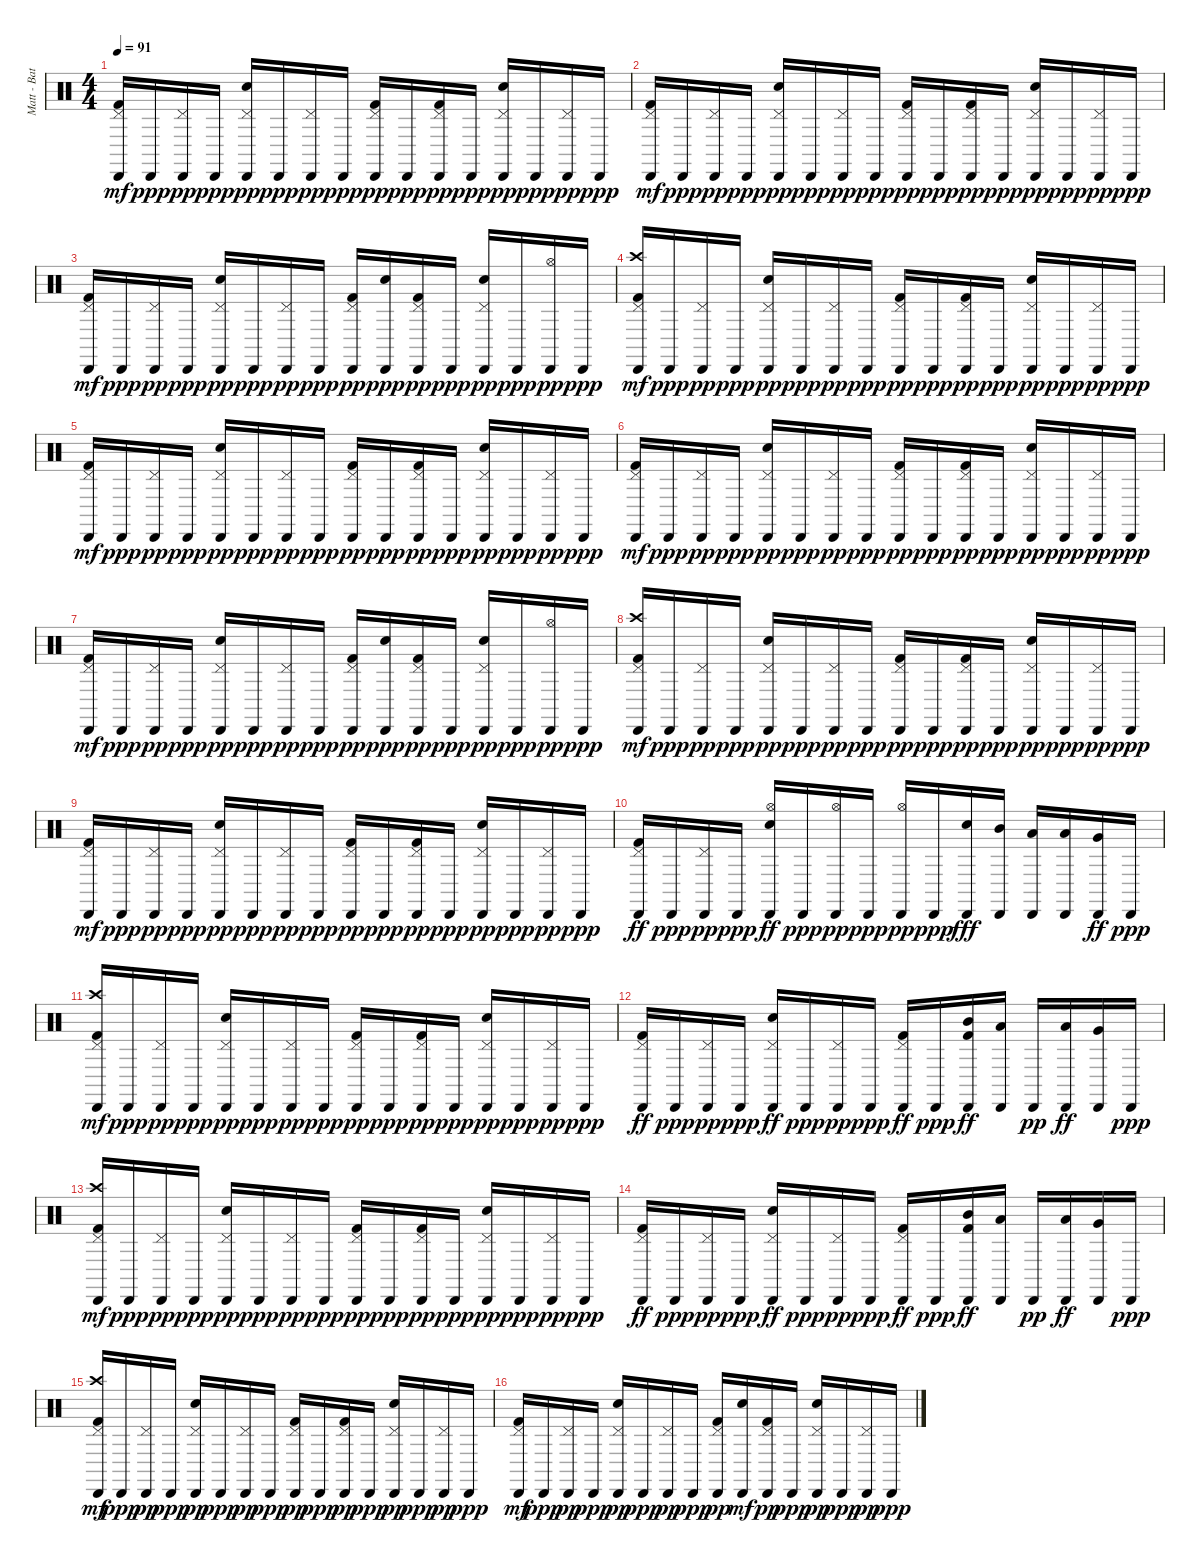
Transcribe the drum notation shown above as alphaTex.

\track ("Matt - Batería" "Matt - Bat") {instrument percussion}
\staff {score}
\articulation defaults
\ts (4 4)
\tempo 91
\clef neutral
\ks c
("Cabasa (hit)" "Pedal Hi-Hat (hit)" "Kick (hit) 2").16{dy mf} "Cabasa (hit)".16{dy ppp} ("Cabasa (hit)" "Pedal Hi-Hat (hit)").16{dy pp} "Cabasa (hit)".16{dy ppp} ("Cabasa (hit)" "Pedal Hi-Hat (hit)" "Snare (hit) 2").16{dy pp} "Cabasa (hit)".16{dy ppp} ("Cabasa (hit)" "Pedal Hi-Hat (hit)").16{dy pp} "Cabasa (hit)".16{dy ppp} ("Cabasa (hit)" "Pedal Hi-Hat (hit)" "Kick (hit) 2").16{dy pp} "Cabasa (hit)".16{dy ppp} ("Cabasa (hit)" "Pedal Hi-Hat (hit)" "Kick (hit) 2").16{dy pp} "Cabasa (hit)".16{dy ppp} ("Cabasa (hit)" "Pedal Hi-Hat (hit)" "Snare (hit) 2").16{dy pp} "Cabasa (hit)".16{dy ppp} ("Cabasa (hit)" "Pedal Hi-Hat (hit)").16{dy pp} "Cabasa (hit)".16{dy ppp} |
("Cabasa (hit)" "Pedal Hi-Hat (hit)" "Kick (hit) 2").16{dy mf} "Cabasa (hit)".16{dy ppp} ("Cabasa (hit)" "Pedal Hi-Hat (hit)").16{dy pp} "Cabasa (hit)".16{dy ppp} ("Cabasa (hit)" "Pedal Hi-Hat (hit)" "Snare (hit) 2").16{dy pp} "Cabasa (hit)".16{dy ppp} ("Cabasa (hit)" "Pedal Hi-Hat (hit)").16{dy pp} "Cabasa (hit)".16{dy ppp} ("Cabasa (hit)" "Pedal Hi-Hat (hit)" "Kick (hit) 2").16{dy pp} "Cabasa (hit)".16{dy ppp} ("Cabasa (hit)" "Pedal Hi-Hat (hit)" "Kick (hit) 2").16{dy pp} "Cabasa (hit)".16{dy ppp} ("Cabasa (hit)" "Pedal Hi-Hat (hit)" "Snare (hit) 2").16{dy pp} "Cabasa (hit)".16{dy ppp} ("Cabasa (hit)" "Pedal Hi-Hat (hit)").16{dy pp} "Cabasa (hit)".16{dy ppp} |
("Cabasa (hit)" "Pedal Hi-Hat (hit)" "Kick (hit) 2").16{dy mf} "Cabasa (hit)".16{dy ppp} ("Cabasa (hit)" "Pedal Hi-Hat (hit)").16{dy pp} "Cabasa (hit)".16{dy ppp} ("Cabasa (hit)" "Pedal Hi-Hat (hit)" "Snare (hit) 2").16{dy pp} "Cabasa (hit)".16{dy ppp} ("Cabasa (hit)" "Pedal Hi-Hat (hit)").16{dy pp} "Cabasa (hit)".16{dy ppp} ("Cabasa (hit)" "Pedal Hi-Hat (hit)" "Kick (hit) 2").16{dy pp} ("Cabasa (hit)" "Snare (hit) 2").16{dy ppp} ("Cabasa (hit)" "Pedal Hi-Hat (hit)" "Kick (hit) 2").16{dy pp} "Cabasa (hit)".16{dy ppp} ("Cabasa (hit)" "Pedal Hi-Hat (hit)" "Snare (hit) 2").16{dy pp} "Cabasa (hit)".16{dy ppp} ("Cabasa (hit)" "Hi-Hat (open)").16{dy pp} "Cabasa (hit)".16{dy ppp} |
("Cabasa (hit)" "Crash high (hit)" "Pedal Hi-Hat (hit)" "Kick (hit) 2").16{dy mf} "Cabasa (hit)".16{dy ppp} ("Cabasa (hit)" "Pedal Hi-Hat (hit)").16{dy pp} "Cabasa (hit)".16{dy ppp} ("Cabasa (hit)" "Pedal Hi-Hat (hit)" "Snare (hit) 2").16{dy pp} "Cabasa (hit)".16{dy ppp} ("Cabasa (hit)" "Pedal Hi-Hat (hit)").16{dy pp} "Cabasa (hit)".16{dy ppp} ("Cabasa (hit)" "Pedal Hi-Hat (hit)" "Kick (hit) 2").16{dy pp} "Cabasa (hit)".16{dy ppp} ("Cabasa (hit)" "Pedal Hi-Hat (hit)" "Kick (hit) 2").16{dy pp} "Cabasa (hit)".16{dy ppp} ("Cabasa (hit)" "Pedal Hi-Hat (hit)" "Snare (hit) 2").16{dy pp} "Cabasa (hit)".16{dy ppp} ("Cabasa (hit)" "Pedal Hi-Hat (hit)").16{dy pp} "Cabasa (hit)".16{dy ppp} |
("Cabasa (hit)" "Pedal Hi-Hat (hit)" "Kick (hit) 2").16{dy mf} "Cabasa (hit)".16{dy ppp} ("Cabasa (hit)" "Pedal Hi-Hat (hit)").16{dy pp} "Cabasa (hit)".16{dy ppp} ("Cabasa (hit)" "Pedal Hi-Hat (hit)" "Snare (hit) 2").16{dy pp} "Cabasa (hit)".16{dy ppp} ("Cabasa (hit)" "Pedal Hi-Hat (hit)").16{dy pp} "Cabasa (hit)".16{dy ppp} ("Cabasa (hit)" "Pedal Hi-Hat (hit)" "Kick (hit) 2").16{dy pp} "Cabasa (hit)".16{dy ppp} ("Cabasa (hit)" "Pedal Hi-Hat (hit)" "Kick (hit) 2").16{dy pp} "Cabasa (hit)".16{dy ppp} ("Cabasa (hit)" "Pedal Hi-Hat (hit)" "Snare (hit) 2").16{dy pp} "Cabasa (hit)".16{dy ppp} ("Cabasa (hit)" "Pedal Hi-Hat (hit)").16{dy pp} "Cabasa (hit)".16{dy ppp} |
("Cabasa (hit)" "Pedal Hi-Hat (hit)" "Kick (hit) 2").16{dy mf} "Cabasa (hit)".16{dy ppp} ("Cabasa (hit)" "Pedal Hi-Hat (hit)").16{dy pp} "Cabasa (hit)".16{dy ppp} ("Cabasa (hit)" "Pedal Hi-Hat (hit)" "Snare (hit) 2").16{dy pp} "Cabasa (hit)".16{dy ppp} ("Cabasa (hit)" "Pedal Hi-Hat (hit)").16{dy pp} "Cabasa (hit)".16{dy ppp} ("Cabasa (hit)" "Pedal Hi-Hat (hit)" "Kick (hit) 2").16{dy pp} "Cabasa (hit)".16{dy ppp} ("Cabasa (hit)" "Pedal Hi-Hat (hit)" "Kick (hit) 2").16{dy pp} "Cabasa (hit)".16{dy ppp} ("Cabasa (hit)" "Pedal Hi-Hat (hit)" "Snare (hit) 2").16{dy pp} "Cabasa (hit)".16{dy ppp} ("Cabasa (hit)" "Pedal Hi-Hat (hit)").16{dy pp} "Cabasa (hit)".16{dy ppp} |
("Cabasa (hit)" "Pedal Hi-Hat (hit)" "Kick (hit) 2").16{dy mf} "Cabasa (hit)".16{dy ppp} ("Cabasa (hit)" "Pedal Hi-Hat (hit)").16{dy pp} "Cabasa (hit)".16{dy ppp} ("Cabasa (hit)" "Pedal Hi-Hat (hit)" "Snare (hit) 2").16{dy pp} "Cabasa (hit)".16{dy ppp} ("Cabasa (hit)" "Pedal Hi-Hat (hit)").16{dy pp} "Cabasa (hit)".16{dy ppp} ("Cabasa (hit)" "Pedal Hi-Hat (hit)" "Kick (hit) 2").16{dy pp} ("Cabasa (hit)" "Snare (hit) 2").16{dy ppp} ("Cabasa (hit)" "Pedal Hi-Hat (hit)" "Kick (hit) 2").16{dy pp} "Cabasa (hit)".16{dy ppp} ("Cabasa (hit)" "Pedal Hi-Hat (hit)" "Snare (hit) 2").16{dy pp} "Cabasa (hit)".16{dy ppp} ("Cabasa (hit)" "Hi-Hat (open)").16{dy pp} "Cabasa (hit)".16{dy ppp} |
("Cabasa (hit)" "Crash high (hit)" "Pedal Hi-Hat (hit)" "Kick (hit) 2").16{dy mf} "Cabasa (hit)".16{dy ppp} ("Cabasa (hit)" "Pedal Hi-Hat (hit)").16{dy pp} "Cabasa (hit)".16{dy ppp} ("Cabasa (hit)" "Pedal Hi-Hat (hit)" "Snare (hit) 2").16{dy pp} "Cabasa (hit)".16{dy ppp} ("Cabasa (hit)" "Pedal Hi-Hat (hit)").16{dy pp} "Cabasa (hit)".16{dy ppp} ("Cabasa (hit)" "Pedal Hi-Hat (hit)" "Kick (hit) 2").16{dy pp} "Cabasa (hit)".16{dy ppp} ("Cabasa (hit)" "Pedal Hi-Hat (hit)" "Kick (hit) 2").16{dy pp} "Cabasa (hit)".16{dy ppp} ("Cabasa (hit)" "Pedal Hi-Hat (hit)" "Snare (hit) 2").16{dy pp} "Cabasa (hit)".16{dy ppp} ("Cabasa (hit)" "Pedal Hi-Hat (hit)").16{dy pp} "Cabasa (hit)".16{dy ppp} |
("Cabasa (hit)" "Pedal Hi-Hat (hit)" "Kick (hit) 2").16{dy mf} "Cabasa (hit)".16{dy ppp} ("Cabasa (hit)" "Pedal Hi-Hat (hit)").16{dy pp} "Cabasa (hit)".16{dy ppp} ("Cabasa (hit)" "Pedal Hi-Hat (hit)" "Snare (hit) 2").16{dy pp} "Cabasa (hit)".16{dy ppp} ("Cabasa (hit)" "Pedal Hi-Hat (hit)").16{dy pp} "Cabasa (hit)".16{dy ppp} ("Cabasa (hit)" "Pedal Hi-Hat (hit)" "Kick (hit) 2").16{dy pp} "Cabasa (hit)".16{dy ppp} ("Cabasa (hit)" "Pedal Hi-Hat (hit)" "Kick (hit) 2").16{dy pp} "Cabasa (hit)".16{dy ppp} ("Cabasa (hit)" "Pedal Hi-Hat (hit)" "Snare (hit) 2").16{dy pp} "Cabasa (hit)".16{dy ppp} ("Cabasa (hit)" "Pedal Hi-Hat (hit)").16{dy pp} "Cabasa (hit)".16{dy ppp} |
("Cabasa (hit)" "Pedal Hi-Hat (hit)" "Kick (hit) 2").16{dy ff} "Cabasa (hit)".16{dy ppp} ("Cabasa (hit)" "Pedal Hi-Hat (hit)").16{dy pp} "Cabasa (hit)".16{dy ppp} ("Cabasa (hit)" "Hi-Hat (open)" "Snare (hit) 2").16{dy ff} "Cabasa (hit)".16{dy ppp} ("Cabasa (hit)" "Hi-Hat (open)").16{dy pp} "Cabasa (hit)".16{dy ppp} ("Cabasa (hit)" "Hi-Hat (open)").16{dy pp} "Cabasa (hit)".16{dy ppp} ("Cabasa (hit)" "Snare (hit) 2").16{dy fff} ("Cabasa (hit)" "Mid Tom (hit)").16 ("Cabasa (hit)" "Low Tom (hit)").16 ("Cabasa (hit)" "Low Tom (hit)").16 ("Cabasa (hit)" "Very Low Tom (hit)").16{dy ff} "Cabasa (hit)".16{dy ppp} |
("Cabasa (hit)" "Crash high (hit)" "Pedal Hi-Hat (hit)" "Kick (hit) 2").16{dy mf} "Cabasa (hit)".16{dy ppp} ("Cabasa (hit)" "Pedal Hi-Hat (hit)").16{dy pp} "Cabasa (hit)".16{dy ppp} ("Cabasa (hit)" "Pedal Hi-Hat (hit)" "Snare (hit) 2").16{dy pp} "Cabasa (hit)".16{dy ppp} ("Cabasa (hit)" "Pedal Hi-Hat (hit)").16{dy pp} "Cabasa (hit)".16{dy ppp} ("Cabasa (hit)" "Pedal Hi-Hat (hit)" "Kick (hit) 2").16{dy pp} "Cabasa (hit)".16{dy ppp} ("Cabasa (hit)" "Pedal Hi-Hat (hit)" "Kick (hit) 2").16{dy pp} "Cabasa (hit)".16{dy ppp} ("Cabasa (hit)" "Pedal Hi-Hat (hit)" "Snare (hit) 2").16{dy pp} "Cabasa (hit)".16{dy ppp} ("Cabasa (hit)" "Pedal Hi-Hat (hit)").16{dy pp} "Cabasa (hit)".16{dy ppp} |
("Cabasa (hit)" "Pedal Hi-Hat (hit)" "Kick (hit) 2").16{dy ff} "Cabasa (hit)".16{dy ppp} ("Cabasa (hit)" "Pedal Hi-Hat (hit)").16{dy pp} "Cabasa (hit)".16{dy ppp} ("Cabasa (hit)" "Pedal Hi-Hat (hit)" "Snare (hit) 2").16{dy ff} "Cabasa (hit)".16{dy ppp} ("Cabasa (hit)" "Pedal Hi-Hat (hit)").16{dy pp} "Cabasa (hit)".16{dy ppp} ("Cabasa (hit)" "Pedal Hi-Hat (hit)" "Kick (hit) 2").16{dy ff} "Cabasa (hit)".16{dy ppp} ("Cabasa (hit)" "Mid Tom (hit)" "Kick (hit) 2").16{dy ff} ("Cabasa (hit)" "Low Tom (hit)").16 "Cabasa (hit)".16{dy pp} ("Cabasa (hit)" "Low Tom (hit)").16{dy ff} ("Cabasa (hit)" "Very Low Tom (hit)").16 "Cabasa (hit)".16{dy ppp} |
("Cabasa (hit)" "Crash high (hit)" "Pedal Hi-Hat (hit)" "Kick (hit) 2").16{dy mf} "Cabasa (hit)".16{dy ppp} ("Cabasa (hit)" "Pedal Hi-Hat (hit)").16{dy pp} "Cabasa (hit)".16{dy ppp} ("Cabasa (hit)" "Pedal Hi-Hat (hit)" "Snare (hit) 2").16{dy pp} "Cabasa (hit)".16{dy ppp} ("Cabasa (hit)" "Pedal Hi-Hat (hit)").16{dy pp} "Cabasa (hit)".16{dy ppp} ("Cabasa (hit)" "Pedal Hi-Hat (hit)" "Kick (hit) 2").16{dy pp} "Cabasa (hit)".16{dy ppp} ("Cabasa (hit)" "Pedal Hi-Hat (hit)" "Kick (hit) 2").16{dy pp} "Cabasa (hit)".16{dy ppp} ("Cabasa (hit)" "Pedal Hi-Hat (hit)" "Snare (hit) 2").16{dy pp} "Cabasa (hit)".16{dy ppp} ("Cabasa (hit)" "Pedal Hi-Hat (hit)").16{dy pp} "Cabasa (hit)".16{dy ppp} |
("Cabasa (hit)" "Pedal Hi-Hat (hit)" "Kick (hit) 2").16{dy ff} "Cabasa (hit)".16{dy ppp} ("Cabasa (hit)" "Pedal Hi-Hat (hit)").16{dy pp} "Cabasa (hit)".16{dy ppp} ("Cabasa (hit)" "Pedal Hi-Hat (hit)" "Snare (hit) 2").16{dy ff} "Cabasa (hit)".16{dy ppp} ("Cabasa (hit)" "Pedal Hi-Hat (hit)").16{dy pp} "Cabasa (hit)".16{dy ppp} ("Cabasa (hit)" "Pedal Hi-Hat (hit)" "Kick (hit) 2").16{dy ff} "Cabasa (hit)".16{dy ppp} ("Cabasa (hit)" "Mid Tom (hit)" "Kick (hit) 2").16{dy ff} ("Cabasa (hit)" "Low Tom (hit)").16 "Cabasa (hit)".16{dy pp} ("Cabasa (hit)" "Low Tom (hit)").16{dy ff} ("Cabasa (hit)" "Very Low Tom (hit)").16 "Cabasa (hit)".16{dy ppp} |
("Cabasa (hit)" "Crash high (hit)" "Pedal Hi-Hat (hit)" "Kick (hit) 2").16{dy mf} "Cabasa (hit)".16{dy ppp} ("Cabasa (hit)" "Pedal Hi-Hat (hit)").16{dy pp} "Cabasa (hit)".16{dy ppp} ("Cabasa (hit)" "Pedal Hi-Hat (hit)" "Snare (hit) 2").16{dy pp} "Cabasa (hit)".16{dy ppp} ("Cabasa (hit)" "Pedal Hi-Hat (hit)").16{dy pp} "Cabasa (hit)".16{dy ppp} ("Cabasa (hit)" "Pedal Hi-Hat (hit)" "Kick (hit) 2").16{dy pp} "Cabasa (hit)".16{dy ppp} ("Cabasa (hit)" "Pedal Hi-Hat (hit)" "Kick (hit) 2").16{dy pp} "Cabasa (hit)".16{dy ppp} ("Cabasa (hit)" "Pedal Hi-Hat (hit)" "Snare (hit) 2").16{dy pp} "Cabasa (hit)".16{dy ppp} ("Cabasa (hit)" "Pedal Hi-Hat (hit)").16{dy pp} "Cabasa (hit)".16{dy ppp} |
("Cabasa (hit)" "Pedal Hi-Hat (hit)" "Kick (hit) 2").16{dy mf} "Cabasa (hit)".16{dy ppp} ("Cabasa (hit)" "Pedal Hi-Hat (hit)").16{dy pp} "Cabasa (hit)".16{dy ppp} ("Cabasa (hit)" "Pedal Hi-Hat (hit)" "Snare (hit) 2").16{dy pp} "Cabasa (hit)".16{dy ppp} ("Cabasa (hit)" "Pedal Hi-Hat (hit)").16{dy pp} "Cabasa (hit)".16{dy ppp} ("Cabasa (hit)" "Pedal Hi-Hat (hit)" "Kick (hit) 2").16{dy pp} ("Cabasa (hit)" "Snare (hit) 2").16{dy mf} ("Cabasa (hit)" "Pedal Hi-Hat (hit)" "Kick (hit) 2").16{dy pp} "Cabasa (hit)".16{dy ppp} ("Cabasa (hit)" "Pedal Hi-Hat (hit)" "Snare (hit) 2").16{dy pp} "Cabasa (hit)".16{dy ppp} ("Cabasa (hit)" "Pedal Hi-Hat (hit)").16{dy pp} "Cabasa (hit)".16{dy ppp}
